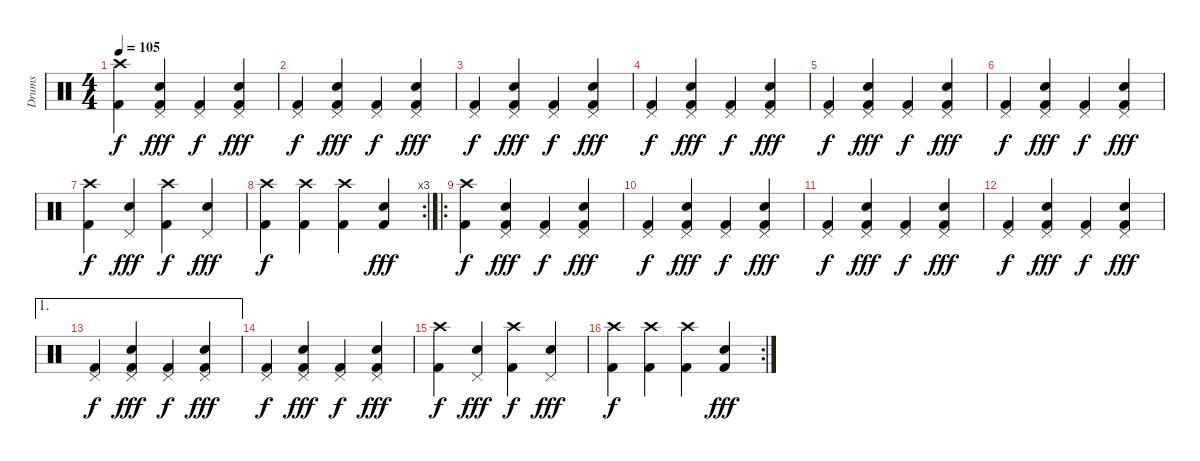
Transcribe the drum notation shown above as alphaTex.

\track ("Drums" "Drums") {instrument percussion}
\staff {score}
\articulation defaults
\ts (4 4)
\tempo 105
\clef neutral
\ks c
("Crash high (hit)" "Kick (hit) 2").4{dy f} ("Pedal Hi-Hat (hit)" "Snare (hit) 2" "Kick (hit) 2").4{dy fff} ("Pedal Hi-Hat (hit)" "Kick (hit) 2").4{dy f} ("Pedal Hi-Hat (hit)" "Snare (hit) 2" "Kick (hit) 2").4{dy fff} |
("Pedal Hi-Hat (hit)" "Kick (hit) 2").4{dy f} ("Pedal Hi-Hat (hit)" "Snare (hit) 2" "Kick (hit) 2").4{dy fff} ("Pedal Hi-Hat (hit)" "Kick (hit) 2").4{dy f} ("Pedal Hi-Hat (hit)" "Snare (hit) 2" "Kick (hit) 2").4{dy fff} |
("Pedal Hi-Hat (hit)" "Kick (hit) 2").4{dy f} ("Pedal Hi-Hat (hit)" "Snare (hit) 2" "Kick (hit) 2").4{dy fff} ("Pedal Hi-Hat (hit)" "Kick (hit) 2").4{dy f} ("Pedal Hi-Hat (hit)" "Snare (hit) 2" "Kick (hit) 2").4{dy fff} |
("Pedal Hi-Hat (hit)" "Kick (hit) 2").4{dy f} ("Pedal Hi-Hat (hit)" "Snare (hit) 2" "Kick (hit) 2").4{dy fff} ("Pedal Hi-Hat (hit)" "Kick (hit) 2").4{dy f} ("Pedal Hi-Hat (hit)" "Snare (hit) 2" "Kick (hit) 2").4{dy fff} |
("Pedal Hi-Hat (hit)" "Kick (hit) 2").4{dy f} ("Pedal Hi-Hat (hit)" "Snare (hit) 2" "Kick (hit) 2").4{dy fff} ("Pedal Hi-Hat (hit)" "Kick (hit) 2").4{dy f} ("Pedal Hi-Hat (hit)" "Snare (hit) 2" "Kick (hit) 2").4{dy fff} |
("Pedal Hi-Hat (hit)" "Kick (hit) 2").4{dy f} ("Pedal Hi-Hat (hit)" "Snare (hit) 2" "Kick (hit) 2").4{dy fff} ("Pedal Hi-Hat (hit)" "Kick (hit) 2").4{dy f} ("Pedal Hi-Hat (hit)" "Snare (hit) 2" "Kick (hit) 2").4{dy fff} |
("Crash high (hit)" "Kick (hit) 2").4{dy f} ("Pedal Hi-Hat (hit)" "Snare (hit) 2").4{dy fff} ("Crash high (hit)" "Kick (hit) 2").4{dy f} ("Pedal Hi-Hat (hit)" "Snare (hit) 2").4{dy fff} |
\rc 3
("Crash high (hit)" "Kick (hit) 2").4{dy f} ("Crash high (hit)" "Kick (hit) 2").4 ("Crash high (hit)" "Kick (hit) 2").4 ("Snare (hit) 2" "Kick (hit) 2").4{dy fff} |
\ro
("Crash high (hit)" "Kick (hit) 2").4{dy f} ("Pedal Hi-Hat (hit)" "Snare (hit) 2" "Kick (hit) 2").4{dy fff} ("Pedal Hi-Hat (hit)" "Kick (hit) 2").4{dy f} ("Pedal Hi-Hat (hit)" "Snare (hit) 2" "Kick (hit) 2").4{dy fff} |
("Pedal Hi-Hat (hit)" "Kick (hit) 2").4{dy f} ("Pedal Hi-Hat (hit)" "Snare (hit) 2" "Kick (hit) 2").4{dy fff} ("Pedal Hi-Hat (hit)" "Kick (hit) 2").4{dy f} ("Pedal Hi-Hat (hit)" "Snare (hit) 2" "Kick (hit) 2").4{dy fff} |
("Pedal Hi-Hat (hit)" "Kick (hit) 2").4{dy f} ("Pedal Hi-Hat (hit)" "Snare (hit) 2" "Kick (hit) 2").4{dy fff} ("Pedal Hi-Hat (hit)" "Kick (hit) 2").4{dy f} ("Pedal Hi-Hat (hit)" "Snare (hit) 2" "Kick (hit) 2").4{dy fff} |
("Pedal Hi-Hat (hit)" "Kick (hit) 2").4{dy f} ("Pedal Hi-Hat (hit)" "Snare (hit) 2" "Kick (hit) 2").4{dy fff} ("Pedal Hi-Hat (hit)" "Kick (hit) 2").4{dy f} ("Pedal Hi-Hat (hit)" "Snare (hit) 2" "Kick (hit) 2").4{dy fff} |
\ae 1
("Pedal Hi-Hat (hit)" "Kick (hit) 2").4{dy f} ("Pedal Hi-Hat (hit)" "Snare (hit) 2" "Kick (hit) 2").4{dy fff} ("Pedal Hi-Hat (hit)" "Kick (hit) 2").4{dy f} ("Pedal Hi-Hat (hit)" "Snare (hit) 2" "Kick (hit) 2").4{dy fff} |
("Pedal Hi-Hat (hit)" "Kick (hit) 2").4{dy f} ("Pedal Hi-Hat (hit)" "Snare (hit) 2" "Kick (hit) 2").4{dy fff} ("Pedal Hi-Hat (hit)" "Kick (hit) 2").4{dy f} ("Pedal Hi-Hat (hit)" "Snare (hit) 2" "Kick (hit) 2").4{dy fff} |
("Crash high (hit)" "Kick (hit) 2").4{dy f} ("Pedal Hi-Hat (hit)" "Snare (hit) 2").4{dy fff} ("Crash high (hit)" "Kick (hit) 2").4{dy f} ("Pedal Hi-Hat (hit)" "Snare (hit) 2").4{dy fff} |
\rc 2
("Crash high (hit)" "Kick (hit) 2").4{dy f} ("Crash high (hit)" "Kick (hit) 2").4 ("Crash high (hit)" "Kick (hit) 2").4 ("Snare (hit) 2" "Kick (hit) 2").4{dy fff}
